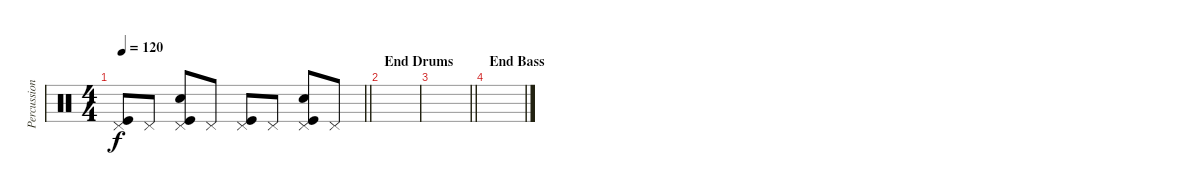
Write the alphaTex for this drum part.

\track ("Percussion" "Percussion") {instrument percussion}
\staff {score}
\articulation defaults
\ts (4 4)
\tempo 120
\clef neutral
\barLineRight lightlight
\ks c
("Pedal Hi-Hat (hit)" "Kick (hit)").8{dy f} "Pedal Hi-Hat (hit)".8 ("Pedal Hi-Hat (hit)" "Electric Snare (hit)" "Kick (hit)").8 "Pedal Hi-Hat (hit)".8 ("Pedal Hi-Hat (hit)" "Kick (hit)").8 "Pedal Hi-Hat (hit)".8 ("Pedal Hi-Hat (hit)" "Electric Snare (hit)" "Kick (hit)").8 "Pedal Hi-Hat (hit)".8 |
\section ("" "End Drums")
|
\barLineRight lightlight
|
\section ("" "End Bass")
